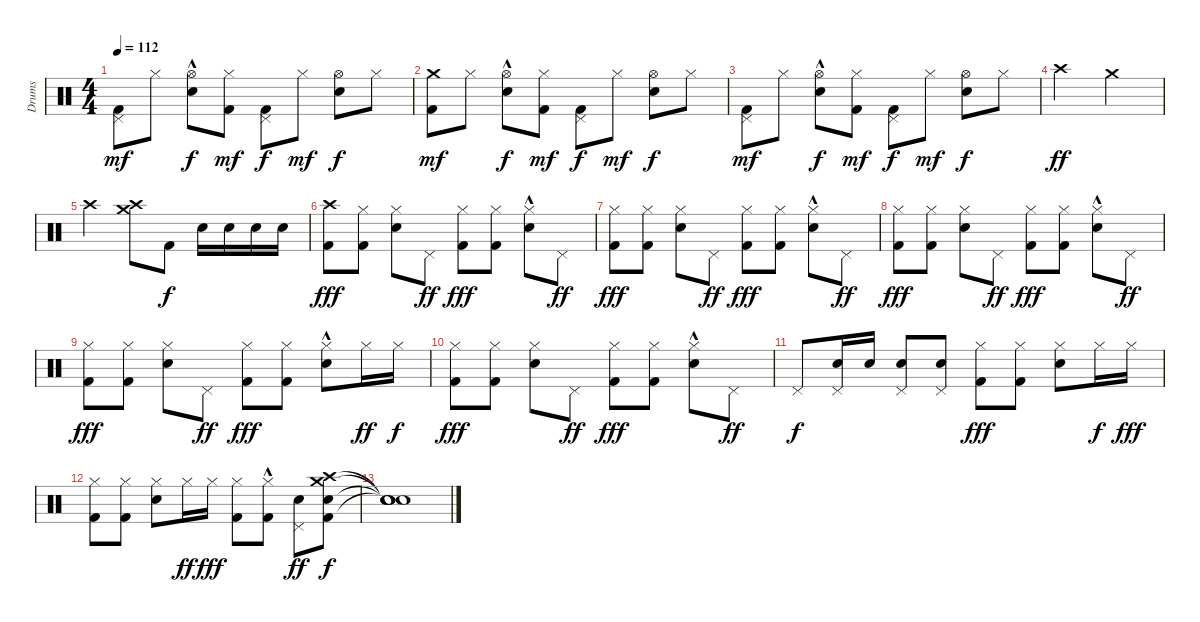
\track ("Drums" "Drums") {instrument percussion}
\staff {score}
\articulation defaults
\ts (4 4)
\tempo 112
\clef neutral
\ks c
("Pedal Hi-Hat (hit)" "Kick (hit) 2").8{dy mf} "Hi-Hat (closed)".8 ("Hi-Hat (open)"{hac} "Snare (hit) 2").8{dy f} ("Hi-Hat (closed)" "Kick (hit) 2").8{dy mf} ("Pedal Hi-Hat (hit)" "Kick (hit) 2").8{dy f} "Hi-Hat (closed)".8{dy mf} ("Hi-Hat (open)" "Snare (hit) 2").8{dy f} "Hi-Hat (closed)".8 |
("Crash medium (hit)" "Kick (hit) 2").8{dy mf} "Hi-Hat (closed)".8 ("Hi-Hat (open)"{hac} "Snare (hit) 2").8{dy f} ("Hi-Hat (closed)" "Kick (hit) 2").8{dy mf} ("Pedal Hi-Hat (hit)" "Kick (hit) 2").8{dy f} "Hi-Hat (closed)".8{dy mf} ("Hi-Hat (open)" "Snare (hit) 2").8{dy f} "Hi-Hat (closed)".8 |
("Pedal Hi-Hat (hit)" "Kick (hit) 2").8{dy mf} "Hi-Hat (closed)".8 ("Hi-Hat (open)"{hac} "Snare (hit) 2").8{dy f} ("Hi-Hat (closed)" "Kick (hit) 2").8{dy mf} ("Pedal Hi-Hat (hit)" "Kick (hit) 2").8{dy f} "Hi-Hat (closed)".8{dy mf} ("Hi-Hat (open)" "Snare (hit) 2").8{dy f} "Hi-Hat (closed)".8 |
"Crash high (hit)".2{dy ff} "Crash medium (hit)".2 |
"Crash high (hit)".2 ("Crash high (hit)" "Crash medium (hit)").8 "Kick (hit) 2".8{dy f} "Snare (hit) 2".16 "Snare (hit) 2".16 "Snare (hit) 2".16 "Snare (hit) 2".16 |
("Crash high (hit)" "Kick (hit) 2").8{dy fff} ("Hi-Hat (closed)" "Kick (hit) 2").8 ("Hi-Hat (closed)" "Snare (hit) 2").8 "Pedal Hi-Hat (hit)".8{dy ff} ("Hi-Hat (closed)" "Kick (hit) 2").8{dy fff} ("Hi-Hat (closed)" "Kick (hit) 2").8 ("Hi-Hat (closed)"{hac} "Snare (hit) 2").8 "Pedal Hi-Hat (hit)".8{dy ff} |
("Hi-Hat (closed)" "Kick (hit) 2").8{dy fff} ("Hi-Hat (closed)" "Kick (hit) 2").8 ("Hi-Hat (closed)" "Snare (hit) 2").8 "Pedal Hi-Hat (hit)".8{dy ff} ("Hi-Hat (closed)" "Kick (hit) 2").8{dy fff} ("Hi-Hat (closed)" "Kick (hit) 2").8 ("Hi-Hat (closed)"{hac} "Snare (hit) 2").8 "Pedal Hi-Hat (hit)".8{dy ff} |
("Hi-Hat (closed)" "Kick (hit) 2").8{dy fff} ("Hi-Hat (closed)" "Kick (hit) 2").8 ("Hi-Hat (closed)" "Snare (hit) 2").8 "Pedal Hi-Hat (hit)".8{dy ff} ("Hi-Hat (closed)" "Kick (hit) 2").8{dy fff} ("Hi-Hat (closed)" "Kick (hit) 2").8 ("Hi-Hat (closed)"{hac} "Snare (hit) 2").8 "Pedal Hi-Hat (hit)".8{dy ff} |
("Hi-Hat (closed)" "Kick (hit) 2").8{dy fff} ("Hi-Hat (closed)" "Kick (hit) 2").8 ("Hi-Hat (closed)" "Snare (hit) 2").8 "Pedal Hi-Hat (hit)".8{dy ff} ("Hi-Hat (closed)" "Kick (hit) 2").8{dy fff} ("Hi-Hat (closed)" "Kick (hit) 2").8 ("Hi-Hat (closed)"{hac} "Snare (hit) 2").8 "Hi-Hat (closed)".16{dy ff} "Hi-Hat (closed)".16{dy f} |
("Hi-Hat (closed)" "Kick (hit) 2").8{dy fff} ("Hi-Hat (closed)" "Kick (hit) 2").8 ("Hi-Hat (closed)" "Snare (hit) 2").8 "Pedal Hi-Hat (hit)".8{dy ff} ("Hi-Hat (closed)" "Kick (hit) 2").8{dy fff} ("Hi-Hat (closed)" "Kick (hit) 2").8 ("Hi-Hat (closed)"{hac} "Snare (hit) 2").8 "Pedal Hi-Hat (hit)".8{dy ff} |
"Pedal Hi-Hat (hit)".8{dy f} ("Pedal Hi-Hat (hit)" "Snare (hit) 2").16 "Snare (hit) 2".16 ("Pedal Hi-Hat (hit)" "Snare (hit) 2").8 ("Pedal Hi-Hat (hit)" "Snare (hit) 2").8 ("Hi-Hat (closed)" "Kick (hit) 2").8{dy fff} ("Hi-Hat (closed)" "Kick (hit) 2").8 ("Hi-Hat (closed)" "Snare (hit) 2").8 "Hi-Hat (closed)".16{dy f} "Hi-Hat (closed)".16{dy fff} |
("Hi-Hat (closed)" "Kick (hit) 2").8 ("Hi-Hat (closed)" "Kick (hit) 2").8 ("Hi-Hat (closed)" "Snare (hit) 2").8 "Hi-Hat (closed)".16{dy ff} "Hi-Hat (closed)".16{dy fff} ("Hi-Hat (closed)" "Kick (hit) 2").8 ("Hi-Hat (closed)"{hac} "Kick (hit) 2").8 ("Pedal Hi-Hat (hit)" "Snare (hit) 2").8{dy ff} ("Crash medium (hit)" "Crash high (hit)" "Snare (hit) 2" "Kick (hit) 2").8{dy f} |
("Snare (hit)"{t} "Snare (hit)"{t} "Snare (hit)"{t} "Snare (hit)"{t}).1
